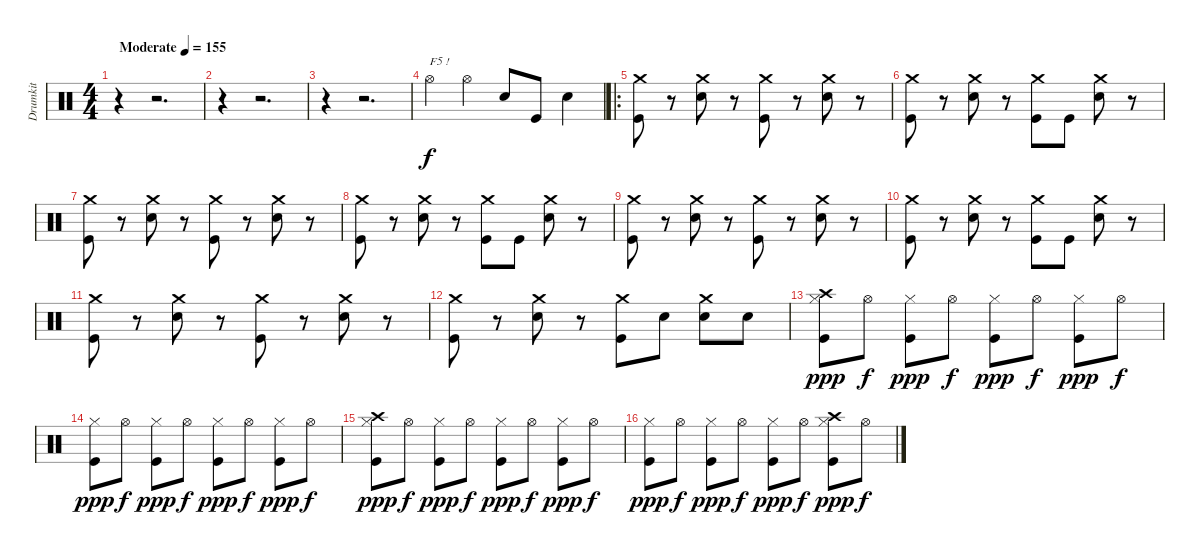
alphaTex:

\track ("Drumkit" "Drumkit") {instrument percussion}
\staff {score}
\articulation defaults
\ts (4 4)
\tempo (155 "Moderate")
\clef neutral
\ks c
r.4{dy f} r.2{d} |
r.4 r.2{d} |
r.4 r.2{d} |
"Hi-Hat (open)".4{txt "F5 !"} "Hi-Hat (open)".4 "Snare (hit) 2".8 "Kick (hit)".8 "Snare (hit) 2".4 |
\ro
("Crash medium (hit)" "Kick (hit)").8 r.8 ("Crash medium (hit)" "Snare (hit) 2").8 r.8 ("Crash medium (hit)" "Kick (hit)").8 r.8 ("Crash medium (hit)" "Snare (hit) 2").8 r.8 |
("Crash medium (hit)" "Kick (hit)").8 r.8 ("Crash medium (hit)" "Snare (hit) 2").8 r.8 ("Crash medium (hit)" "Kick (hit)").8 "Kick (hit)".8 ("Crash medium (hit)" "Snare (hit) 2").8 r.8 |
("Crash medium (hit)" "Kick (hit)").8 r.8 ("Crash medium (hit)" "Snare (hit) 2").8 r.8 ("Crash medium (hit)" "Kick (hit)").8 r.8 ("Crash medium (hit)" "Snare (hit) 2").8 r.8 |
("Crash medium (hit)" "Kick (hit)").8 r.8 ("Crash medium (hit)" "Snare (hit) 2").8 r.8 ("Crash medium (hit)" "Kick (hit)").8 "Kick (hit)".8 ("Crash medium (hit)" "Snare (hit) 2").8 r.8 |
("Crash medium (hit)" "Kick (hit)").8 r.8 ("Crash medium (hit)" "Snare (hit) 2").8 r.8 ("Crash medium (hit)" "Kick (hit)").8 r.8 ("Crash medium (hit)" "Snare (hit) 2").8 r.8 |
("Crash medium (hit)" "Kick (hit)").8 r.8 ("Crash medium (hit)" "Snare (hit) 2").8 r.8 ("Crash medium (hit)" "Kick (hit)").8 "Kick (hit)".8 ("Crash medium (hit)" "Snare (hit) 2").8 r.8 |
("Crash medium (hit)" "Kick (hit)").8 r.8 ("Crash medium (hit)" "Snare (hit) 2").8 r.8 ("Crash medium (hit)" "Kick (hit)").8 r.8 ("Crash medium (hit)" "Snare (hit) 2").8 r.8 |
("Crash medium (hit)" "Kick (hit)").8 r.8 ("Crash medium (hit)" "Snare (hit) 2").8 r.8 ("Crash medium (hit)" "Kick (hit)").8 "Snare (hit) 2".8 ("Crash medium (hit)" "Snare (hit) 2").8 "Snare (hit) 2".8 |
("Hi-Hat (closed)" "Crash high (hit)" "Kick (hit)").8{dy ppp} "Hi-Hat (open)".8{dy f} ("Hi-Hat (closed)" "Kick (hit)").8{dy ppp} "Hi-Hat (open)".8{dy f} ("Hi-Hat (closed)" "Kick (hit)").8{dy ppp} "Hi-Hat (open)".8{dy f} ("Hi-Hat (closed)" "Kick (hit)").8{dy ppp} "Hi-Hat (open)".8{dy f} |
("Hi-Hat (closed)" "Kick (hit)").8{dy ppp} "Hi-Hat (open)".8{dy f} ("Hi-Hat (closed)" "Kick (hit)").8{dy ppp} "Hi-Hat (open)".8{dy f} ("Hi-Hat (closed)" "Kick (hit)").8{dy ppp} "Hi-Hat (open)".8{dy f} ("Hi-Hat (closed)" "Kick (hit)").8{dy ppp} "Hi-Hat (open)".8{dy f} |
("Hi-Hat (closed)" "Crash high (hit)" "Kick (hit)").8{dy ppp} "Hi-Hat (open)".8{dy f} ("Hi-Hat (closed)" "Kick (hit)").8{dy ppp} "Hi-Hat (open)".8{dy f} ("Hi-Hat (closed)" "Kick (hit)").8{dy ppp} "Hi-Hat (open)".8{dy f} ("Hi-Hat (closed)" "Kick (hit)").8{dy ppp} "Hi-Hat (open)".8{dy f} |
("Hi-Hat (closed)" "Kick (hit)").8{dy ppp} "Hi-Hat (open)".8{dy f} ("Hi-Hat (closed)" "Kick (hit)").8{dy ppp} "Hi-Hat (open)".8{dy f} ("Hi-Hat (closed)" "Kick (hit)").8{dy ppp} "Hi-Hat (open)".8{dy f} ("Hi-Hat (closed)" "Crash high (hit)" "Kick (hit)").8{dy ppp} "Hi-Hat (open)".8{dy f}
